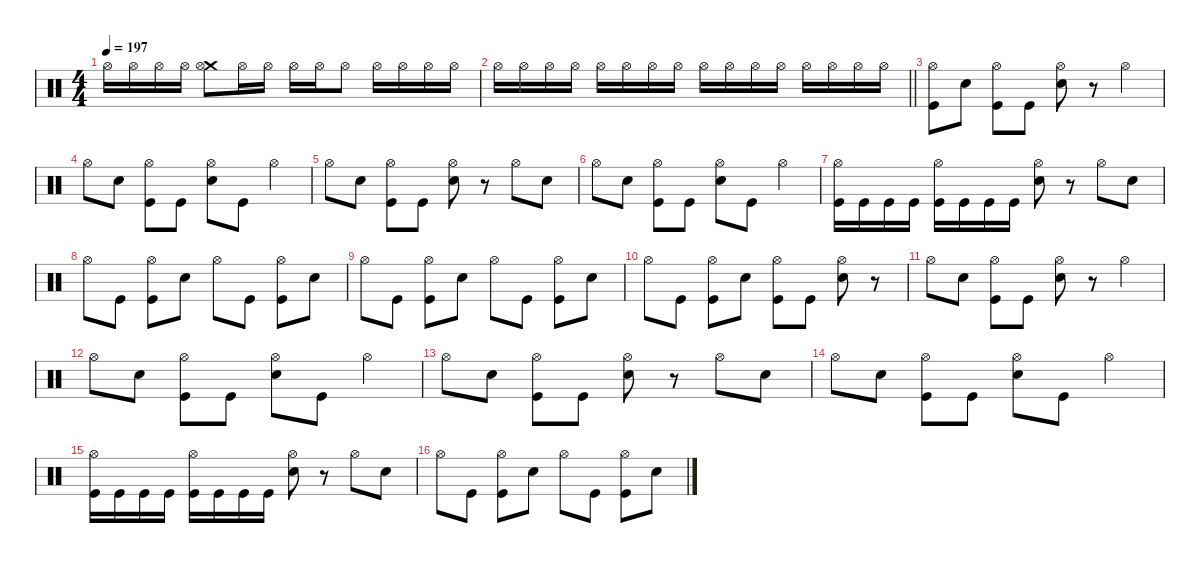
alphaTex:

\defaultSystemsLayout 4
\hideDynamics
\bracketExtendMode nobrackets
\singleTrackTrackNamePolicy hidden
\multiTrackTrackNamePolicy hidden
\firstSystemTrackNameMode fullname
\firstSystemTrackNameOrientation horizontal
\otherSystemsTrackNameOrientation horizontal
\track ("Drums" "drm.") {defaultSystemsLayout 4 instrument percussion}
\staff {score}
\articulation defaults
\ts (4 4)
\tempo 197
\clef neutral
\ks c "Hi-Hat (open)".16{dy mp beam Down} "Hi-Hat (open)".16{beam Down} "Hi-Hat (open)".16{beam Down} "Hi-Hat (open)".16{beam Down}
("Crash medium (hit)" "Hi-Hat (open)").8{beam Down} "Hi-Hat (open)".16{beam Down} "Hi-Hat (open)".16{beam Down} "Hi-Hat (open)".16{beam Down} "Hi-Hat (open)".16{beam Down} "Hi-Hat (open)".8{beam Down} "Hi-Hat (open)".16{beam Down} "Hi-Hat (open)".16{beam Down} "Hi-Hat (open)".16{beam Down} "Hi-Hat (open)".16{beam Down} |
\barLineRight lightlight "Hi-Hat (open)".16{beam Down} "Hi-Hat (open)".16{beam Down} "Hi-Hat (open)".16{beam Down} "Hi-Hat (open)".16{beam Down} "Hi-Hat (open)".16{beam Down} "Hi-Hat (open)".16{beam Down} "Hi-Hat (open)".16{beam Down} "Hi-Hat (open)".16{beam Down} "Hi-Hat (open)".16{dy mf beam Down} "Hi-Hat (open)".16{beam Down} "Hi-Hat (open)".16{beam Down} "Hi-Hat (open)".16{beam Down} "Hi-Hat (open)".16{dy f beam Down} "Hi-Hat (open)".16{beam Down} "Hi-Hat (open)".16{beam Down} "Hi-Hat (open)".16{dy ff beam Down}
|
("Hi-Hat (open)" "Kick (hit)").8{dy mf beam Down} "Snare (hit) 2".8{dy f beam Down} ("Hi-Hat (open)" "Kick (hit)").8{dy mf beam Down} "Kick (hit)".8{dy f beam Down} ("Hi-Hat (open)" "Snare (hit) 2").8{dy mf beam Down} r.8{beam Down} "Hi-Hat (open)".4{beam Down} |
"Hi-Hat (open)".8{beam Down} "Snare (hit) 2".8{dy f beam Down} ("Hi-Hat (open)" "Kick (hit)").8{dy mf beam Down} "Kick (hit)".8{dy f beam Down} ("Hi-Hat (open)" "Snare (hit) 2").8{dy mf beam Down} "Kick (hit)".8{dy f beam Down} "Hi-Hat (open)".4{dy mf beam Down} |
"Hi-Hat (open)".8{beam Down} "Snare (hit) 2".8{dy f beam Down} ("Hi-Hat (open)" "Kick (hit)").8{dy mf beam Down} "Kick (hit)".8{dy f beam Down} ("Hi-Hat (open)" "Snare (hit) 2").8{dy mf beam Down} r.8{beam Down} "Hi-Hat (open)".8{beam Down} "Snare (hit) 2".8{dy f beam Down} |
"Hi-Hat (open)".8{dy mf beam Down} "Snare (hit) 2".8{dy f beam Down} ("Hi-Hat (open)" "Kick (hit)").8{dy mf beam Down} "Kick (hit)".8{dy f beam Down} ("Hi-Hat (open)" "Snare (hit) 2").8{dy mf beam Down} "Kick (hit)".8{dy f beam Down} "Hi-Hat (open)".4{dy mf beam Down} |
("Hi-Hat (open)" "Kick (hit)").16{beam Down} "Kick (hit)".16{dy f beam Down} "Kick (hit)".16{beam Down} "Kick (hit)".16{beam Down} ("Hi-Hat (open)" "Kick (hit)").16{dy mf beam Down} "Kick (hit)".16{dy f beam Down} "Kick (hit)".16{beam Down} "Kick (hit)".16{beam Down} ("Hi-Hat (open)" "Snare (hit) 2").8{dy mf beam Down} r.8{beam Down} "Hi-Hat (open)".8{beam Down} "Snare (hit) 2".8{dy f beam Down} |
"Hi-Hat (open)".8{dy mf beam Down} "Kick (hit)".8{dy f beam Down} ("Hi-Hat (open)" "Kick (hit)").8{dy mf beam Down} "Snare (hit) 2".8{dy f beam Down} "Hi-Hat (open)".8{dy mf beam Down} "Kick (hit)".8{dy f beam Down} ("Hi-Hat (open)" "Kick (hit)").8{dy mf beam Down} "Snare (hit) 2".8{dy f beam Down} |
"Hi-Hat (open)".8{dy mf beam Down} "Kick (hit)".8{dy f beam Down} ("Hi-Hat (open)" "Kick (hit)").8{dy mf beam Down} "Snare (hit) 2".8{dy f beam Down} "Hi-Hat (open)".8{dy mf beam Down} "Kick (hit)".8{dy f beam Down} ("Hi-Hat (open)" "Kick (hit)").8{dy mf beam Down} "Snare (hit) 2".8{dy f beam Down} |
"Hi-Hat (open)".8{dy mf beam Down} "Kick (hit)".8{dy f beam Down} ("Hi-Hat (open)" "Kick (hit)").8{dy mf beam Down} "Snare (hit) 2".8{dy f beam Down} ("Hi-Hat (open)" "Kick (hit)").8{dy mf beam Down} "Kick (hit)".8{dy f beam Down} ("Hi-Hat (open)" "Snare (hit) 2").8{dy mf beam Down} r.8{beam Down} |
"Hi-Hat (open)".8{beam Down} "Snare (hit) 2".8{dy f beam Down} ("Hi-Hat (open)" "Kick (hit)").8{dy mf beam Down} "Kick (hit)".8{dy f beam Down} ("Hi-Hat (open)" "Snare (hit) 2").8{dy mf beam Down} r.8{beam Down} "Hi-Hat (open)".4{beam Down} |
"Hi-Hat (open)".8{beam Down} "Snare (hit) 2".8{dy f beam Down} ("Hi-Hat (open)" "Kick (hit)").8{dy mf beam Down} "Kick (hit)".8{dy f beam Down} ("Hi-Hat (open)" "Snare (hit) 2").8{dy mf beam Down} "Kick (hit)".8{dy f beam Down} "Hi-Hat (open)".4{dy mf beam Down} |
"Hi-Hat (open)".8{beam Down} "Snare (hit) 2".8{dy f beam Down} ("Hi-Hat (open)" "Kick (hit)").8{dy mf beam Down} "Kick (hit)".8{dy f beam Down} ("Hi-Hat (open)" "Snare (hit) 2").8{dy mf beam Down} r.8{beam Down} "Hi-Hat (open)".8{beam Down} "Snare (hit) 2".8{dy f beam Down} |
"Hi-Hat (open)".8{dy mf beam Down} "Snare (hit) 2".8{dy f beam Down} ("Hi-Hat (open)" "Kick (hit)").8{dy mf beam Down} "Kick (hit)".8{dy f beam Down} ("Hi-Hat (open)" "Snare (hit) 2").8{dy mf beam Down} "Kick (hit)".8{dy f beam Down} "Hi-Hat (open)".4{dy mf beam Down} |
("Hi-Hat (open)" "Kick (hit)").16{beam Down} "Kick (hit)".16{dy f beam Down} "Kick (hit)".16{beam Down} "Kick (hit)".16{beam Down} ("Hi-Hat (open)" "Kick (hit)").16{dy mf beam Down} "Kick (hit)".16{dy f beam Down} "Kick (hit)".16{beam Down} "Kick (hit)".16{beam Down} ("Hi-Hat (open)" "Snare (hit) 2").8{dy mf beam Down} r.8{beam Down} "Hi-Hat (open)".8{beam Down} "Snare (hit) 2".8{dy f beam Down} |
"Hi-Hat (open)".8{dy mf beam Down} "Kick (hit)".8{dy f beam Down} ("Hi-Hat (open)" "Kick (hit)").8{dy mf beam Down} "Snare (hit) 2".8{dy f beam Down} "Hi-Hat (open)".8{dy mf beam Down} "Kick (hit)".8{dy f beam Down} ("Hi-Hat (open)" "Kick (hit)").8{dy mf beam Down} "Snare (hit) 2".8{dy f beam Down}
